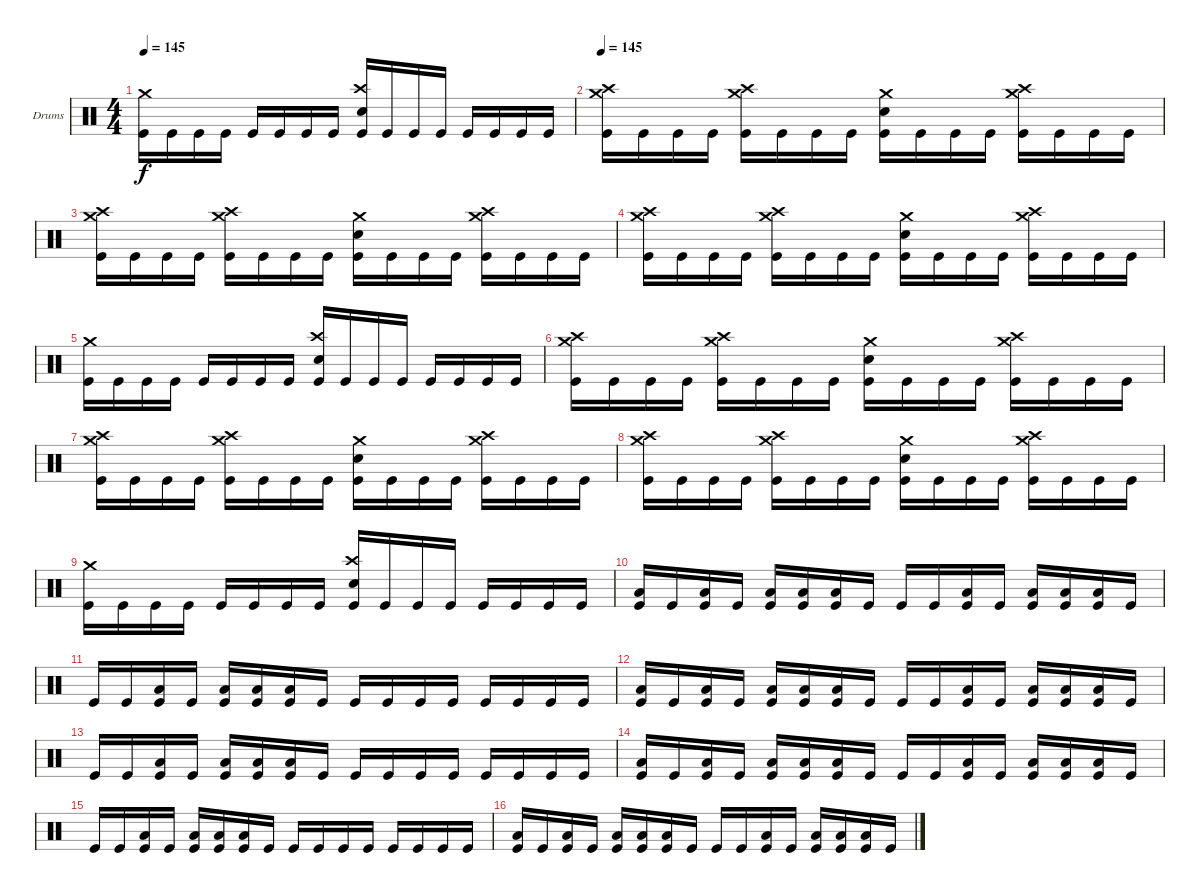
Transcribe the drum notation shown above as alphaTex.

\bracketExtendMode groupsimilarinstruments
\firstSystemTrackNameOrientation horizontal
\otherSystemsTrackNameOrientation horizontal
\track ("Drumkit" "Drums") {instrument percussion}
\staff {score}
\articulation defaults
\ts (4 4)
\tempo 145
\clef neutral
\ks c
("Crash medium (hit)" "Kick (hit)").16{dy f} "Kick (hit)".16 "Kick (hit)".16 "Kick (hit)".16 "Kick (hit)".16 "Kick (hit)".16 "Kick (hit)".16 "Kick (hit)".16 ("Crash high (hit)" "Snare (hit) 2" "Kick (hit)").16 "Kick (hit)".16 "Kick (hit)".16 "Kick (hit)".16 "Kick (hit)".16 "Kick (hit)".16 "Kick (hit)".16 "Kick (hit)".16 |
\tempo 145
("Crash medium (hit)" "Crash high (hit)" "Kick (hit)").16 "Kick (hit)".16 "Kick (hit)".16 "Kick (hit)".16 ("Crash medium (hit)" "Crash high (hit)" "Kick (hit)").16 "Kick (hit)".16 "Kick (hit)".16 "Kick (hit)".16 ("Crash medium (hit)" "Snare (hit) 2" "Kick (hit)").16 "Kick (hit)".16 "Kick (hit)".16 "Kick (hit)".16 ("Crash medium (hit)" "Crash high (hit)" "Kick (hit)").16 "Kick (hit)".16 "Kick (hit)".16 "Kick (hit)".16 |
("Crash medium (hit)" "Crash high (hit)" "Kick (hit)").16 "Kick (hit)".16 "Kick (hit)".16 "Kick (hit)".16 ("Crash medium (hit)" "Crash high (hit)" "Kick (hit)").16 "Kick (hit)".16 "Kick (hit)".16 "Kick (hit)".16 ("Crash medium (hit)" "Snare (hit) 2" "Kick (hit)").16 "Kick (hit)".16 "Kick (hit)".16 "Kick (hit)".16 ("Crash medium (hit)" "Crash high (hit)" "Kick (hit)").16 "Kick (hit)".16 "Kick (hit)".16 "Kick (hit)".16 |
("Crash medium (hit)" "Crash high (hit)" "Kick (hit)").16 "Kick (hit)".16 "Kick (hit)".16 "Kick (hit)".16 ("Crash medium (hit)" "Crash high (hit)" "Kick (hit)").16 "Kick (hit)".16 "Kick (hit)".16 "Kick (hit)".16 ("Crash medium (hit)" "Snare (hit) 2" "Kick (hit)").16 "Kick (hit)".16 "Kick (hit)".16 "Kick (hit)".16 ("Crash medium (hit)" "Crash high (hit)" "Kick (hit)").16 "Kick (hit)".16 "Kick (hit)".16 "Kick (hit)".16 |
("Crash medium (hit)" "Kick (hit)").16 "Kick (hit)".16 "Kick (hit)".16 "Kick (hit)".16 "Kick (hit)".16 "Kick (hit)".16 "Kick (hit)".16 "Kick (hit)".16 ("Crash high (hit)" "Snare (hit) 2" "Kick (hit)").16 "Kick (hit)".16 "Kick (hit)".16 "Kick (hit)".16 "Kick (hit)".16 "Kick (hit)".16 "Kick (hit)".16 "Kick (hit)".16 |
("Crash medium (hit)" "Crash high (hit)" "Kick (hit)").16 "Kick (hit)".16 "Kick (hit)".16 "Kick (hit)".16 ("Crash medium (hit)" "Crash high (hit)" "Kick (hit)").16 "Kick (hit)".16 "Kick (hit)".16 "Kick (hit)".16 ("Crash medium (hit)" "Snare (hit) 2" "Kick (hit)").16 "Kick (hit)".16 "Kick (hit)".16 "Kick (hit)".16 ("Crash medium (hit)" "Crash high (hit)" "Kick (hit)").16 "Kick (hit)".16 "Kick (hit)".16 "Kick (hit)".16 |
("Crash medium (hit)" "Crash high (hit)" "Kick (hit)").16 "Kick (hit)".16 "Kick (hit)".16 "Kick (hit)".16 ("Crash medium (hit)" "Crash high (hit)" "Kick (hit)").16 "Kick (hit)".16 "Kick (hit)".16 "Kick (hit)".16 ("Crash medium (hit)" "Snare (hit) 2" "Kick (hit)").16 "Kick (hit)".16 "Kick (hit)".16 "Kick (hit)".16 ("Crash medium (hit)" "Crash high (hit)" "Kick (hit)").16 "Kick (hit)".16 "Kick (hit)".16 "Kick (hit)".16 |
("Crash medium (hit)" "Crash high (hit)" "Kick (hit)").16 "Kick (hit)".16 "Kick (hit)".16 "Kick (hit)".16 ("Crash medium (hit)" "Crash high (hit)" "Kick (hit)").16 "Kick (hit)".16 "Kick (hit)".16 "Kick (hit)".16 ("Crash medium (hit)" "Snare (hit) 2" "Kick (hit)").16 "Kick (hit)".16 "Kick (hit)".16 "Kick (hit)".16 ("Crash medium (hit)" "Crash high (hit)" "Kick (hit)").16 "Kick (hit)".16 "Kick (hit)".16 "Kick (hit)".16 |
("Crash medium (hit)" "Kick (hit)").16 "Kick (hit)".16 "Kick (hit)".16 "Kick (hit)".16 "Kick (hit)".16 "Kick (hit)".16 "Kick (hit)".16 "Kick (hit)".16 ("Crash high (hit)" "Snare (hit) 2" "Kick (hit)").16 "Kick (hit)".16 "Kick (hit)".16 "Kick (hit)".16 "Kick (hit)".16 "Kick (hit)".16 "Kick (hit)".16 "Kick (hit)".16 |
("Low Tom (hit)" "Kick (hit)").16 "Kick (hit)".16 ("Low Tom (hit)" "Kick (hit)").16 "Kick (hit)".16 ("Low Tom (hit)" "Kick (hit)").16 ("Low Tom (hit)" "Kick (hit)").16 ("Low Tom (hit)" "Kick (hit)").16 "Kick (hit)".16 "Kick (hit)".16 "Kick (hit)".16 ("Low Tom (hit)" "Kick (hit)").16 "Kick (hit)".16 ("Low Tom (hit)" "Kick (hit)").16 ("Low Tom (hit)" "Kick (hit)").16 ("Low Tom (hit)" "Kick (hit)").16 "Kick (hit)".16 |
"Kick (hit)".16 "Kick (hit)".16 ("Low Tom (hit)" "Kick (hit)").16 "Kick (hit)".16 ("Low Tom (hit)" "Kick (hit)").16 ("Low Tom (hit)" "Kick (hit)").16 ("Low Tom (hit)" "Kick (hit)").16 "Kick (hit)".16 "Kick (hit)".16 "Kick (hit)".16 "Kick (hit)".16 "Kick (hit)".16 "Kick (hit)".16 "Kick (hit)".16 "Kick (hit)".16 "Kick (hit)".16 |
("Low Tom (hit)" "Kick (hit)").16 "Kick (hit)".16 ("Low Tom (hit)" "Kick (hit)").16 "Kick (hit)".16 ("Low Tom (hit)" "Kick (hit)").16 ("Low Tom (hit)" "Kick (hit)").16 ("Low Tom (hit)" "Kick (hit)").16 "Kick (hit)".16 "Kick (hit)".16 "Kick (hit)".16 ("Low Tom (hit)" "Kick (hit)").16 "Kick (hit)".16 ("Low Tom (hit)" "Kick (hit)").16 ("Low Tom (hit)" "Kick (hit)").16 ("Low Tom (hit)" "Kick (hit)").16 "Kick (hit)".16 |
"Kick (hit)".16 "Kick (hit)".16 ("Low Tom (hit)" "Kick (hit)").16 "Kick (hit)".16 ("Low Tom (hit)" "Kick (hit)").16 ("Low Tom (hit)" "Kick (hit)").16 ("Low Tom (hit)" "Kick (hit)").16 "Kick (hit)".16 "Kick (hit)".16 "Kick (hit)".16 "Kick (hit)".16 "Kick (hit)".16 "Kick (hit)".16 "Kick (hit)".16 "Kick (hit)".16 "Kick (hit)".16 |
("Low Tom (hit)" "Kick (hit)").16 "Kick (hit)".16 ("Low Tom (hit)" "Kick (hit)").16 "Kick (hit)".16 ("Low Tom (hit)" "Kick (hit)").16 ("Low Tom (hit)" "Kick (hit)").16 ("Low Tom (hit)" "Kick (hit)").16 "Kick (hit)".16 "Kick (hit)".16 "Kick (hit)".16 ("Low Tom (hit)" "Kick (hit)").16 "Kick (hit)".16 ("Low Tom (hit)" "Kick (hit)").16 ("Low Tom (hit)" "Kick (hit)").16 ("Low Tom (hit)" "Kick (hit)").16 "Kick (hit)".16 |
"Kick (hit)".16 "Kick (hit)".16 ("Low Tom (hit)" "Kick (hit)").16 "Kick (hit)".16 ("Low Tom (hit)" "Kick (hit)").16 ("Low Tom (hit)" "Kick (hit)").16 ("Low Tom (hit)" "Kick (hit)").16 "Kick (hit)".16 "Kick (hit)".16 "Kick (hit)".16 "Kick (hit)".16 "Kick (hit)".16 "Kick (hit)".16 "Kick (hit)".16 "Kick (hit)".16 "Kick (hit)".16 |
("Low Tom (hit)" "Kick (hit)").16 "Kick (hit)".16 ("Low Tom (hit)" "Kick (hit)").16 "Kick (hit)".16 ("Low Tom (hit)" "Kick (hit)").16 ("Low Tom (hit)" "Kick (hit)").16 ("Low Tom (hit)" "Kick (hit)").16 "Kick (hit)".16 "Kick (hit)".16 "Kick (hit)".16 ("Low Tom (hit)" "Kick (hit)").16 "Kick (hit)".16 ("Low Tom (hit)" "Kick (hit)").16 ("Low Tom (hit)" "Kick (hit)").16 ("Low Tom (hit)" "Kick (hit)").16 "Kick (hit)".16
